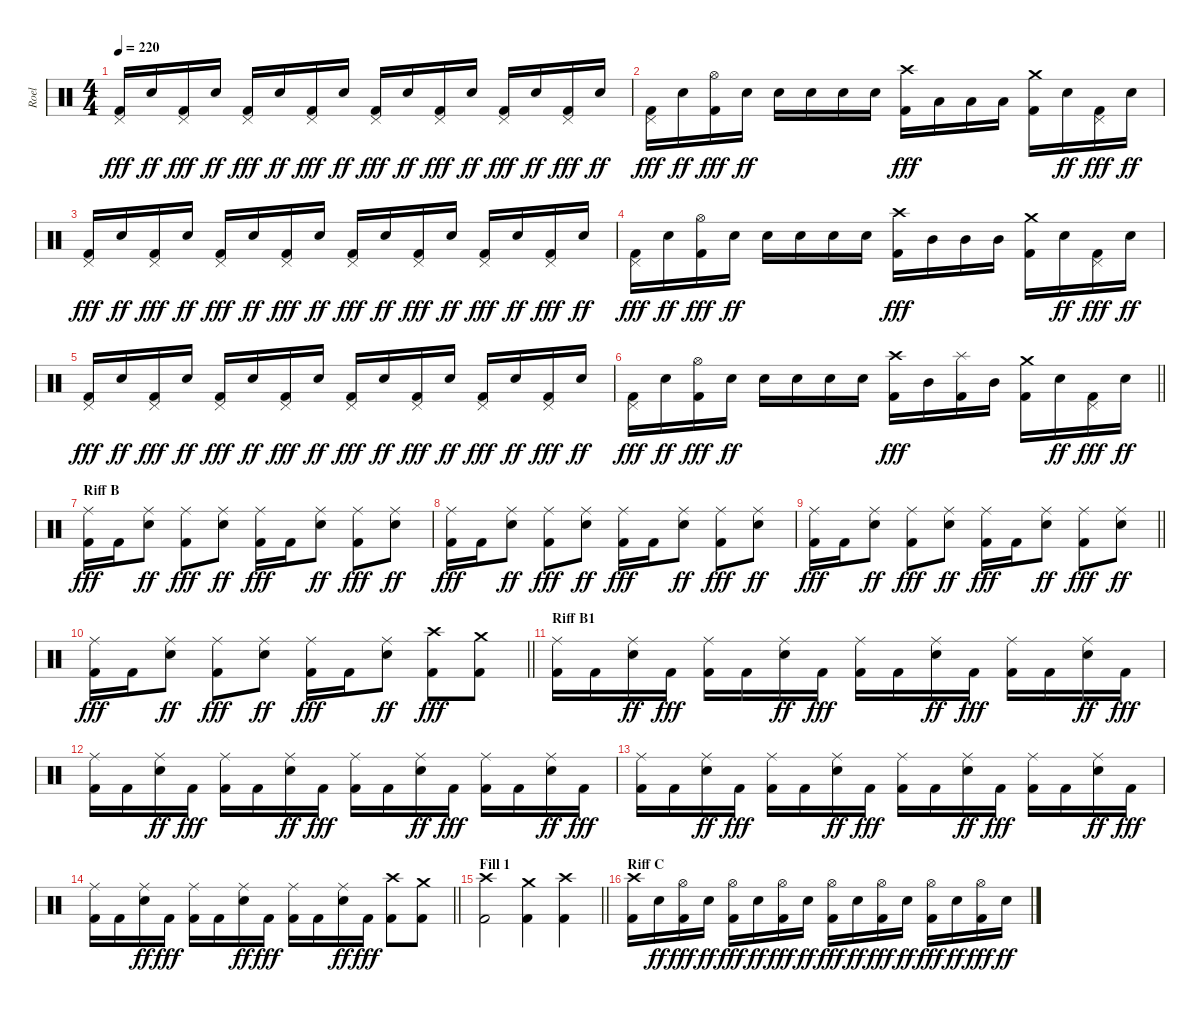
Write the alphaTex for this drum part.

\track ("Roel" "Roel") {instrument percussion}
\staff {score}
\articulation defaults
\ts (4 4)
\tempo 220
\clef neutral
\ks c
("Pedal Hi-Hat (hit)" "Kick (hit) 2").16{dy fff} "Snare (hit) 2".16{dy ff} ("Pedal Hi-Hat (hit)" "Kick (hit) 2").16{dy fff} "Snare (hit) 2".16{dy ff} ("Pedal Hi-Hat (hit)" "Kick (hit) 2").16{dy fff} "Snare (hit) 2".16{dy ff} ("Pedal Hi-Hat (hit)" "Kick (hit) 2").16{dy fff} "Snare (hit) 2".16{dy ff} ("Pedal Hi-Hat (hit)" "Kick (hit) 2").16{dy fff} "Snare (hit) 2".16{dy ff} ("Pedal Hi-Hat (hit)" "Kick (hit) 2").16{dy fff} "Snare (hit) 2".16{dy ff} ("Pedal Hi-Hat (hit)" "Kick (hit) 2").16{dy fff} "Snare (hit) 2".16{dy ff} ("Pedal Hi-Hat (hit)" "Kick (hit) 2").16{dy fff} "Snare (hit) 2".16{dy ff} |
("Pedal Hi-Hat (hit)" "Kick (hit) 2").16{dy fff} "Snare (hit) 2".16{dy ff} ("Hi-Hat (open)" "Kick (hit) 2").16{dy fff} "Snare (hit) 2".16{dy ff} "Snare (hit) 2".16 "Snare (hit) 2".16 "Snare (hit) 2".16 "Snare (hit) 2".16 ("Crash high (hit)" "Kick (hit) 2").16{dy fff} "Low Tom (hit)".16 "Low Tom (hit)".16 "Low Tom (hit)".16 ("Crash medium (hit)" "Kick (hit) 2").16 "Snare (hit) 2".16{dy ff} ("Pedal Hi-Hat (hit)" "Kick (hit) 2").16{dy fff} "Snare (hit) 2".16{dy ff} |
("Pedal Hi-Hat (hit)" "Kick (hit) 2").16{dy fff} "Snare (hit) 2".16{dy ff} ("Pedal Hi-Hat (hit)" "Kick (hit) 2").16{dy fff} "Snare (hit) 2".16{dy ff} ("Pedal Hi-Hat (hit)" "Kick (hit) 2").16{dy fff} "Snare (hit) 2".16{dy ff} ("Pedal Hi-Hat (hit)" "Kick (hit) 2").16{dy fff} "Snare (hit) 2".16{dy ff} ("Pedal Hi-Hat (hit)" "Kick (hit) 2").16{dy fff} "Snare (hit) 2".16{dy ff} ("Pedal Hi-Hat (hit)" "Kick (hit) 2").16{dy fff} "Snare (hit) 2".16{dy ff} ("Pedal Hi-Hat (hit)" "Kick (hit) 2").16{dy fff} "Snare (hit) 2".16{dy ff} ("Pedal Hi-Hat (hit)" "Kick (hit) 2").16{dy fff} "Snare (hit) 2".16{dy ff} |
("Pedal Hi-Hat (hit)" "Kick (hit) 2").16{dy fff} "Snare (hit) 2".16{dy ff} ("Hi-Hat (open)" "Kick (hit) 2").16{dy fff} "Snare (hit) 2".16{dy ff} "Snare (hit) 2".16 "Snare (hit) 2".16 "Snare (hit) 2".16 "Snare (hit) 2".16 ("Crash high (hit)" "Kick (hit) 2").16{dy fff} "Mid Tom (hit)".16 "Mid Tom (hit)".16 "Mid Tom (hit)".16 ("Crash medium (hit)" "Kick (hit) 2").16 "Snare (hit) 2".16{dy ff} ("Pedal Hi-Hat (hit)" "Kick (hit) 2").16{dy fff} "Snare (hit) 2".16{dy ff} |
("Pedal Hi-Hat (hit)" "Kick (hit) 2").16{dy fff} "Snare (hit) 2".16{dy ff} ("Pedal Hi-Hat (hit)" "Kick (hit) 2").16{dy fff} "Snare (hit) 2".16{dy ff} ("Pedal Hi-Hat (hit)" "Kick (hit) 2").16{dy fff} "Snare (hit) 2".16{dy ff} ("Pedal Hi-Hat (hit)" "Kick (hit) 2").16{dy fff} "Snare (hit) 2".16{dy ff} ("Pedal Hi-Hat (hit)" "Kick (hit) 2").16{dy fff} "Snare (hit) 2".16{dy ff} ("Pedal Hi-Hat (hit)" "Kick (hit) 2").16{dy fff} "Snare (hit) 2".16{dy ff} ("Pedal Hi-Hat (hit)" "Kick (hit) 2").16{dy fff} "Snare (hit) 2".16{dy ff} ("Pedal Hi-Hat (hit)" "Kick (hit) 2").16{dy fff} "Snare (hit) 2".16{dy ff} |
\barLineRight lightlight
("Pedal Hi-Hat (hit)" "Kick (hit) 2").16{dy fff} "Snare (hit) 2".16{dy ff} ("Hi-Hat (open)" "Kick (hit) 2").16{dy fff} "Snare (hit) 2".16{dy ff} "Snare (hit) 2".16 "Snare (hit) 2".16 "Snare (hit) 2".16 "Snare (hit) 2".16 ("Crash high (hit)" "Kick (hit) 2").16{dy fff} "Mid Tom (hit)".16 ("Splash (hit)" "Kick (hit) 2").16 "Mid Tom (hit)".16 ("Crash medium (hit)" "Kick (hit) 2").16 "Snare (hit) 2".16{dy ff} ("Pedal Hi-Hat (hit)" "Kick (hit) 2").16{dy fff} "Snare (hit) 2".16{dy ff} |
\section ("" "Riff B")
("Ride (middle)" "Kick (hit) 2").16{dy fff} "Kick (hit) 2".16 ("Ride (middle)" "Snare (hit) 2").8{dy ff} ("Ride (middle)" "Kick (hit) 2").8{dy fff} ("Ride (middle)" "Snare (hit) 2").8{dy ff} ("Ride (middle)" "Kick (hit) 2").16{dy fff} "Kick (hit) 2".16 ("Ride (middle)" "Snare (hit) 2").8{dy ff} ("Ride (middle)" "Kick (hit) 2").8{dy fff} ("Ride (middle)" "Snare (hit) 2").8{dy ff} |
("Ride (middle)" "Kick (hit) 2").16{dy fff} "Kick (hit) 2".16 ("Ride (middle)" "Snare (hit) 2").8{dy ff} ("Ride (middle)" "Kick (hit) 2").8{dy fff} ("Ride (middle)" "Snare (hit) 2").8{dy ff} ("Ride (middle)" "Kick (hit) 2").16{dy fff} "Kick (hit) 2".16 ("Ride (middle)" "Snare (hit) 2").8{dy ff} ("Ride (middle)" "Kick (hit) 2").8{dy fff} ("Ride (middle)" "Snare (hit) 2").8{dy ff} |
\barLineRight lightlight
("Ride (middle)" "Kick (hit) 2").16{dy fff} "Kick (hit) 2".16 ("Ride (middle)" "Snare (hit) 2").8{dy ff} ("Ride (middle)" "Kick (hit) 2").8{dy fff} ("Ride (middle)" "Snare (hit) 2").8{dy ff} ("Ride (middle)" "Kick (hit) 2").16{dy fff} "Kick (hit) 2".16 ("Ride (middle)" "Snare (hit) 2").8{dy ff} ("Ride (middle)" "Kick (hit) 2").8{dy fff} ("Ride (middle)" "Snare (hit) 2").8{dy ff} |
\barLineRight lightlight
("Ride (middle)" "Kick (hit) 2").16{dy fff} "Kick (hit) 2".16 ("Ride (middle)" "Snare (hit) 2").8{dy ff} ("Ride (middle)" "Kick (hit) 2").8{dy fff} ("Ride (middle)" "Snare (hit) 2").8{dy ff} ("Ride (middle)" "Kick (hit) 2").16{dy fff} "Kick (hit) 2".16 ("Ride (middle)" "Snare (hit) 2").8{dy ff} ("Crash high (hit)" "Kick (hit) 2").8{dy fff} ("Crash medium (hit)" "Kick (hit) 2").8 |
\section ("" "Riff B1")
("Ride (middle)" "Kick (hit) 2").16 "Kick (hit) 2".16 ("Ride (middle)" "Snare (hit) 2").16{dy ff} "Kick (hit) 2".16{dy fff} ("Ride (middle)" "Kick (hit) 2").16 "Kick (hit) 2".16 ("Ride (middle)" "Snare (hit) 2").16{dy ff} "Kick (hit) 2".16{dy fff} ("Ride (middle)" "Kick (hit) 2").16 "Kick (hit) 2".16 ("Ride (middle)" "Snare (hit) 2").16{dy ff} "Kick (hit) 2".16{dy fff} ("Ride (middle)" "Kick (hit) 2").16 "Kick (hit) 2".16 ("Ride (middle)" "Snare (hit) 2").16{dy ff} "Kick (hit) 2".16{dy fff} |
("Ride (middle)" "Kick (hit) 2").16 "Kick (hit) 2".16 ("Ride (middle)" "Snare (hit) 2").16{dy ff} "Kick (hit) 2".16{dy fff} ("Ride (middle)" "Kick (hit) 2").16 "Kick (hit) 2".16 ("Ride (middle)" "Snare (hit) 2").16{dy ff} "Kick (hit) 2".16{dy fff} ("Ride (middle)" "Kick (hit) 2").16 "Kick (hit) 2".16 ("Ride (middle)" "Snare (hit) 2").16{dy ff} "Kick (hit) 2".16{dy fff} ("Ride (middle)" "Kick (hit) 2").16 "Kick (hit) 2".16 ("Ride (middle)" "Snare (hit) 2").16{dy ff} "Kick (hit) 2".16{dy fff} |
("Ride (middle)" "Kick (hit) 2").16 "Kick (hit) 2".16 ("Ride (middle)" "Snare (hit) 2").16{dy ff} "Kick (hit) 2".16{dy fff} ("Ride (middle)" "Kick (hit) 2").16 "Kick (hit) 2".16 ("Ride (middle)" "Snare (hit) 2").16{dy ff} "Kick (hit) 2".16{dy fff} ("Ride (middle)" "Kick (hit) 2").16 "Kick (hit) 2".16 ("Ride (middle)" "Snare (hit) 2").16{dy ff} "Kick (hit) 2".16{dy fff} ("Ride (middle)" "Kick (hit) 2").16 "Kick (hit) 2".16 ("Ride (middle)" "Snare (hit) 2").16{dy ff} "Kick (hit) 2".16{dy fff} |
\barLineRight lightlight
("Ride (middle)" "Kick (hit) 2").16 "Kick (hit) 2".16 ("Ride (middle)" "Snare (hit) 2").16{dy ff} "Kick (hit) 2".16{dy fff} ("Ride (middle)" "Kick (hit) 2").16 "Kick (hit) 2".16 ("Ride (middle)" "Snare (hit) 2").16{dy ff} "Kick (hit) 2".16{dy fff} ("Ride (middle)" "Kick (hit) 2").16 "Kick (hit) 2".16 ("Ride (middle)" "Snare (hit) 2").16{dy ff} "Kick (hit) 2".16{dy fff} ("Crash high (hit)" "Kick (hit) 2").8 ("Crash medium (hit)" "Kick (hit) 2").8 |
\section ("" "Fill 1")
\barLineRight lightlight
("Crash high (hit)" "Kick (hit) 2").2 ("Crash medium (hit)" "Kick (hit) 2").4 ("Crash high (hit)" "Kick (hit) 2").4 |
\section ("" "Riff C")
("Crash high (hit)" "Kick (hit) 2").16 "Snare (hit) 2".16{dy ff} ("Hi-Hat (open)" "Kick (hit) 2").16{dy fff} "Snare (hit) 2".16{dy ff} ("Hi-Hat (open)" "Kick (hit) 2").16{dy fff} "Snare (hit) 2".16{dy ff} ("Hi-Hat (open)" "Kick (hit) 2").16{dy fff} "Snare (hit) 2".16{dy ff} ("Hi-Hat (open)" "Kick (hit) 2").16{dy fff} "Snare (hit) 2".16{dy ff} ("Hi-Hat (open)" "Kick (hit) 2").16{dy fff} "Snare (hit) 2".16{dy ff} ("Hi-Hat (open)" "Kick (hit) 2").16{dy fff} "Snare (hit) 2".16{dy ff} ("Hi-Hat (open)" "Kick (hit) 2").16{dy fff} "Snare (hit) 2".16{dy ff}
